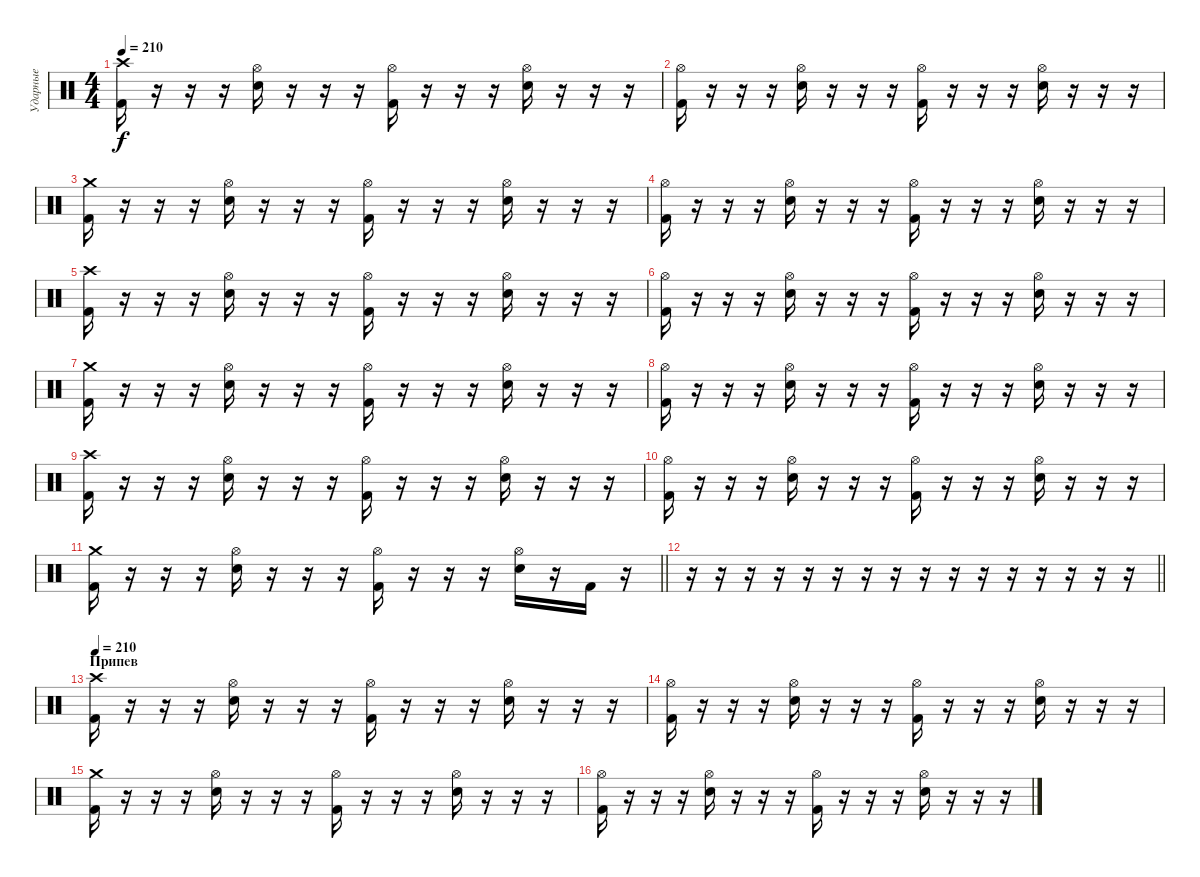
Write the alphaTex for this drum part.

\track ("Ударные" "Ударные") {instrument percussion}
\staff {score}
\articulation defaults
\ts (4 4)
\tempo 210
\clef neutral
\ks c
("Kick (hit) 2" "Crash high (hit)").16{dy f} r.16 r.16 r.16 ("Electric Snare (hit)" "Hi-Hat (open)").16 r.16 r.16 r.16 ("Kick (hit) 2" "Hi-Hat (open)").16 r.16 r.16 r.16 ("Electric Snare (hit)" "Hi-Hat (open)").16 r.16 r.16 r.16 |
("Kick (hit) 2" "Hi-Hat (open)").16 r.16 r.16 r.16 ("Electric Snare (hit)" "Hi-Hat (open)").16 r.16 r.16 r.16 ("Kick (hit) 2" "Hi-Hat (open)").16 r.16 r.16 r.16 ("Electric Snare (hit)" "Hi-Hat (open)").16 r.16 r.16 r.16 |
("Kick (hit) 2" "Crash medium (hit)").16 r.16 r.16 r.16 ("Electric Snare (hit)" "Hi-Hat (open)").16 r.16 r.16 r.16 ("Kick (hit) 2" "Hi-Hat (open)").16 r.16 r.16 r.16 ("Electric Snare (hit)" "Hi-Hat (open)").16 r.16 r.16 r.16 |
("Kick (hit) 2" "Hi-Hat (open)").16 r.16 r.16 r.16 ("Electric Snare (hit)" "Hi-Hat (open)").16 r.16 r.16 r.16 ("Kick (hit) 2" "Hi-Hat (open)").16 r.16 r.16 r.16 ("Electric Snare (hit)" "Hi-Hat (open)").16 r.16 r.16 r.16 |
("Kick (hit) 2" "Crash high (hit)").16 r.16 r.16 r.16 ("Electric Snare (hit)" "Hi-Hat (open)").16 r.16 r.16 r.16 ("Kick (hit) 2" "Hi-Hat (open)").16 r.16 r.16 r.16 ("Electric Snare (hit)" "Hi-Hat (open)").16 r.16 r.16 r.16 |
("Kick (hit) 2" "Hi-Hat (open)").16 r.16 r.16 r.16 ("Electric Snare (hit)" "Hi-Hat (open)").16 r.16 r.16 r.16 ("Kick (hit) 2" "Hi-Hat (open)").16 r.16 r.16 r.16 ("Electric Snare (hit)" "Hi-Hat (open)").16 r.16 r.16 r.16 |
("Kick (hit) 2" "Crash medium (hit)").16 r.16 r.16 r.16 ("Electric Snare (hit)" "Hi-Hat (open)").16 r.16 r.16 r.16 ("Kick (hit) 2" "Hi-Hat (open)").16 r.16 r.16 r.16 ("Electric Snare (hit)" "Hi-Hat (open)").16 r.16 r.16 r.16 |
("Kick (hit) 2" "Hi-Hat (open)").16 r.16 r.16 r.16 ("Electric Snare (hit)" "Hi-Hat (open)").16 r.16 r.16 r.16 ("Kick (hit) 2" "Hi-Hat (open)").16 r.16 r.16 r.16 ("Electric Snare (hit)" "Hi-Hat (open)").16 r.16 r.16 r.16 |
("Kick (hit) 2" "Crash high (hit)").16 r.16 r.16 r.16 ("Electric Snare (hit)" "Hi-Hat (open)").16 r.16 r.16 r.16 ("Kick (hit) 2" "Hi-Hat (open)").16 r.16 r.16 r.16 ("Electric Snare (hit)" "Hi-Hat (open)").16 r.16 r.16 r.16 |
("Kick (hit) 2" "Hi-Hat (open)").16 r.16 r.16 r.16 ("Electric Snare (hit)" "Hi-Hat (open)").16 r.16 r.16 r.16 ("Kick (hit) 2" "Hi-Hat (open)").16 r.16 r.16 r.16 ("Electric Snare (hit)" "Hi-Hat (open)").16 r.16 r.16 r.16 |
\barLineRight lightlight
("Kick (hit) 2" "Crash medium (hit)").16 r.16 r.16 r.16 ("Electric Snare (hit)" "Hi-Hat (open)").16 r.16 r.16 r.16 ("Kick (hit) 2" "Hi-Hat (open)").16 r.16 r.16 r.16 ("Electric Snare (hit)" "Hi-Hat (open)").16 r.16 "Kick (hit) 2".16 r.16 |
\barLineRight lightlight
r.16 r.16 r.16 r.16 r.16 r.16 r.16 r.16 r.16 r.16 r.16 r.16 r.16 r.16 r.16 r.16 |
\section ("" "Припев")
\tempo 210
("Kick (hit) 2" "Crash high (hit)").16 r.16 r.16 r.16 ("Electric Snare (hit)" "Hi-Hat (open)").16 r.16 r.16 r.16 ("Kick (hit) 2" "Hi-Hat (open)").16 r.16 r.16 r.16 ("Electric Snare (hit)" "Hi-Hat (open)").16 r.16 r.16 r.16 |
("Kick (hit) 2" "Hi-Hat (open)").16 r.16 r.16 r.16 ("Electric Snare (hit)" "Hi-Hat (open)").16 r.16 r.16 r.16 ("Kick (hit) 2" "Hi-Hat (open)").16 r.16 r.16 r.16 ("Electric Snare (hit)" "Hi-Hat (open)").16 r.16 r.16 r.16 |
("Kick (hit) 2" "Crash medium (hit)").16 r.16 r.16 r.16 ("Electric Snare (hit)" "Hi-Hat (open)").16 r.16 r.16 r.16 ("Kick (hit) 2" "Hi-Hat (open)").16 r.16 r.16 r.16 ("Electric Snare (hit)" "Hi-Hat (open)").16 r.16 r.16 r.16 |
("Kick (hit) 2" "Hi-Hat (open)").16 r.16 r.16 r.16 ("Electric Snare (hit)" "Hi-Hat (open)").16 r.16 r.16 r.16 ("Kick (hit) 2" "Hi-Hat (open)").16 r.16 r.16 r.16 ("Electric Snare (hit)" "Hi-Hat (open)").16 r.16 r.16 r.16
